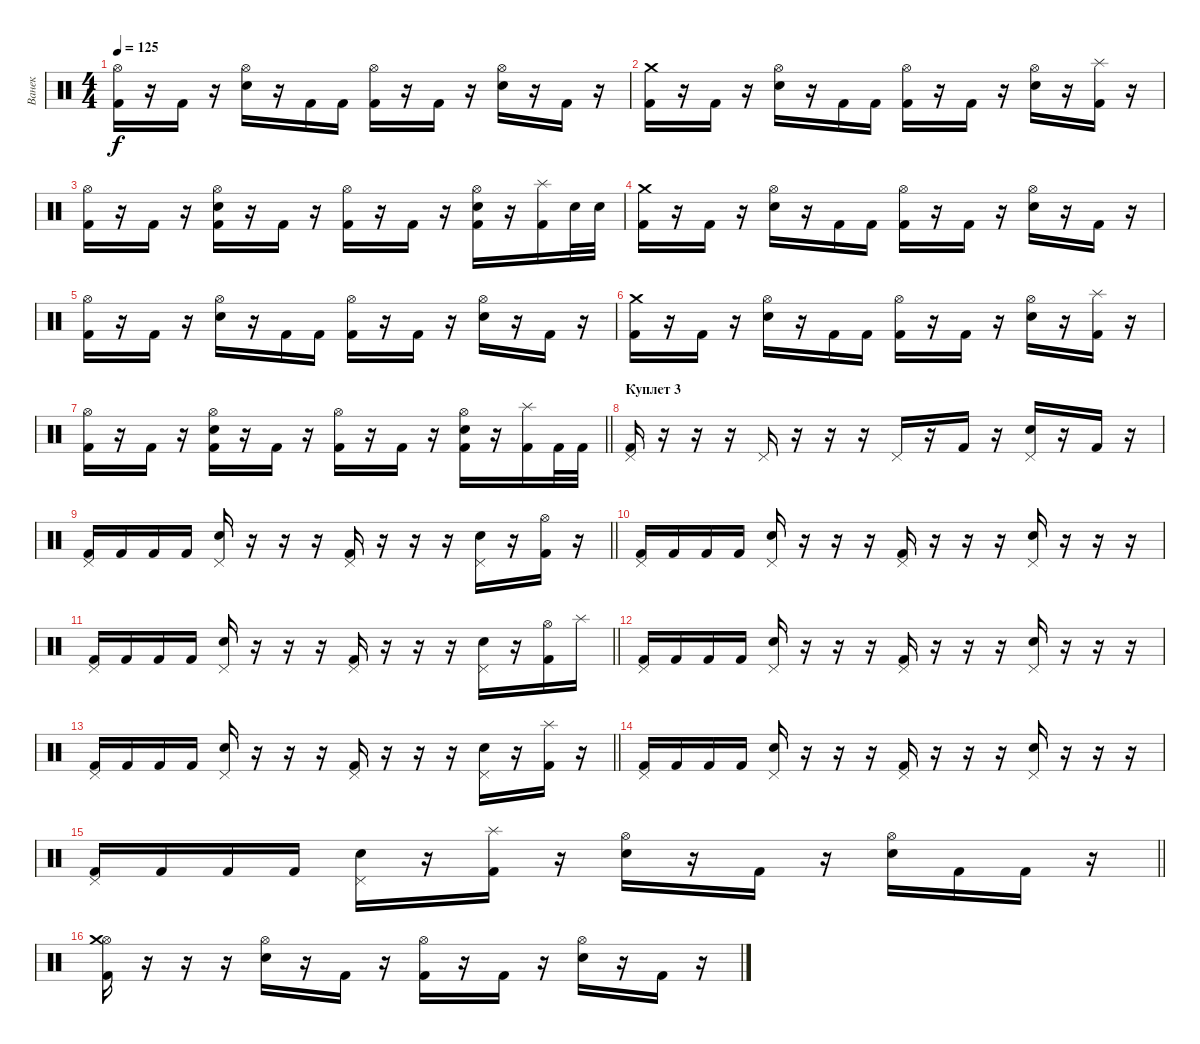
\track ("Ванек" "Ванек") {instrument percussion}
\staff {score}
\articulation defaults
\ts (4 4)
\tempo 125
\clef neutral
\ks c
("Hi-Hat (open)" "Kick (hit) 2").16{dy f} r.16 "Kick (hit) 2".16 r.16 ("Hi-Hat (open)" "Snare (hit) 2").16 r.16 "Kick (hit) 2".16 "Kick (hit) 2".16 ("Hi-Hat (open)" "Kick (hit) 2").16 r.16 "Kick (hit) 2".16 r.16 ("Hi-Hat (open)" "Snare (hit) 2").16 r.16 "Kick (hit) 2".16 r.16 |
("Crash medium (hit)" "Kick (hit) 2").16 r.16 "Kick (hit) 2".16 r.16 ("Hi-Hat (open)" "Snare (hit) 2").16 r.16 "Kick (hit) 2".16 "Kick (hit) 2".16 ("Hi-Hat (open)" "Kick (hit) 2").16 r.16 "Kick (hit) 2".16 r.16 ("Hi-Hat (open)" "Snare (hit) 2").16 r.16 ("Splash (hit)" "Kick (hit) 2").16 r.16 |
("Hi-Hat (open)" "Kick (hit) 2").16 r.16 "Kick (hit) 2".16 r.16 ("Hi-Hat (open)" "Snare (hit) 2" "Kick (hit) 2").16 r.16 "Kick (hit) 2".16 r.16 ("Hi-Hat (open)" "Kick (hit) 2").16 r.16 "Kick (hit) 2".16 r.16 ("Hi-Hat (open)" "Snare (hit) 2" "Kick (hit) 2").16 r.16 ("Splash (hit)" "Kick (hit) 2").16 "Snare (hit) 2".32 "Snare (hit) 2".32 |
("Crash medium (hit)" "Kick (hit) 2").16 r.16 "Kick (hit) 2".16 r.16 ("Hi-Hat (open)" "Snare (hit) 2").16 r.16 "Kick (hit) 2".16 "Kick (hit) 2".16 ("Hi-Hat (open)" "Kick (hit) 2").16 r.16 "Kick (hit) 2".16 r.16 ("Hi-Hat (open)" "Snare (hit) 2").16 r.16 "Kick (hit) 2".16 r.16 |
("Hi-Hat (open)" "Kick (hit) 2").16 r.16 "Kick (hit) 2".16 r.16 ("Hi-Hat (open)" "Snare (hit) 2").16 r.16 "Kick (hit) 2".16 "Kick (hit) 2".16 ("Hi-Hat (open)" "Kick (hit) 2").16 r.16 "Kick (hit) 2".16 r.16 ("Hi-Hat (open)" "Snare (hit) 2").16 r.16 "Kick (hit) 2".16 r.16 |
("Crash medium (hit)" "Kick (hit) 2").16 r.16 "Kick (hit) 2".16 r.16 ("Hi-Hat (open)" "Snare (hit) 2").16 r.16 "Kick (hit) 2".16 "Kick (hit) 2".16 ("Hi-Hat (open)" "Kick (hit) 2").16 r.16 "Kick (hit) 2".16 r.16 ("Hi-Hat (open)" "Snare (hit) 2").16 r.16 ("Splash (hit)" "Kick (hit) 2").16 r.16 |
\barLineRight lightlight
("Hi-Hat (open)" "Kick (hit) 2").16 r.16 "Kick (hit) 2".16 r.16 ("Hi-Hat (open)" "Snare (hit) 2" "Kick (hit) 2").16 r.16 "Kick (hit) 2".16 r.16 ("Hi-Hat (open)" "Kick (hit) 2").16 r.16 "Kick (hit) 2".16 r.16 ("Hi-Hat (open)" "Snare (hit) 2" "Kick (hit) 2").16 r.16 ("Splash (hit)" "Kick (hit) 2").16 "Kick (hit) 2".32 "Kick (hit) 2".32 |
\section ("" "Куплет 3")
("Pedal Hi-Hat (hit)" "Kick (hit) 2").16 r.16 r.16 r.16 "Pedal Hi-Hat (hit)".16 r.16 r.16 r.16 "Pedal Hi-Hat (hit)".16 r.16 "Kick (hit) 2".16 r.16 ("Pedal Hi-Hat (hit)" "Snare (hit) 2").16 r.16 "Kick (hit) 2".16 r.16 |
\barLineRight lightlight
("Pedal Hi-Hat (hit)" "Kick (hit) 2").16 "Kick (hit) 2".16 "Kick (hit) 2".16 "Kick (hit) 2".16 ("Pedal Hi-Hat (hit)" "Snare (hit) 2").16 r.16 r.16 r.16 ("Pedal Hi-Hat (hit)" "Kick (hit) 2").16 r.16 r.16 r.16 ("Pedal Hi-Hat (hit)" "Snare (hit) 2").16 r.16 ("Hi-Hat (open)" "Kick (hit) 2").16 r.16 |
("Pedal Hi-Hat (hit)" "Kick (hit) 2").16 "Kick (hit) 2".16 "Kick (hit) 2".16 "Kick (hit) 2".16 ("Pedal Hi-Hat (hit)" "Snare (hit) 2").16 r.16 r.16 r.16 ("Pedal Hi-Hat (hit)" "Kick (hit) 2").16 r.16 r.16 r.16 ("Pedal Hi-Hat (hit)" "Snare (hit) 2").16 r.16 r.16 r.16 |
\barLineRight lightlight
("Pedal Hi-Hat (hit)" "Kick (hit) 2").16 "Kick (hit) 2".16 "Kick (hit) 2".16 "Kick (hit) 2".16 ("Pedal Hi-Hat (hit)" "Snare (hit) 2").16 r.16 r.16 r.16 ("Pedal Hi-Hat (hit)" "Kick (hit) 2").16 r.16 r.16 r.16 ("Pedal Hi-Hat (hit)" "Snare (hit) 2").16 r.16 ("Hi-Hat (open)" "Kick (hit) 2").16 "Splash (hit)".16 |
("Pedal Hi-Hat (hit)" "Kick (hit) 2").16 "Kick (hit) 2".16 "Kick (hit) 2".16 "Kick (hit) 2".16 ("Pedal Hi-Hat (hit)" "Snare (hit) 2").16 r.16 r.16 r.16 ("Pedal Hi-Hat (hit)" "Kick (hit) 2").16 r.16 r.16 r.16 ("Pedal Hi-Hat (hit)" "Snare (hit) 2").16 r.16 r.16 r.16 |
\barLineRight lightlight
("Pedal Hi-Hat (hit)" "Kick (hit) 2").16 "Kick (hit) 2".16 "Kick (hit) 2".16 "Kick (hit) 2".16 ("Pedal Hi-Hat (hit)" "Snare (hit) 2").16 r.16 r.16 r.16 ("Pedal Hi-Hat (hit)" "Kick (hit) 2").16 r.16 r.16 r.16 ("Pedal Hi-Hat (hit)" "Snare (hit) 2").16 r.16 ("Splash (hit)" "Kick (hit) 2").16 r.16 |
("Pedal Hi-Hat (hit)" "Kick (hit) 2").16 "Kick (hit) 2".16 "Kick (hit) 2".16 "Kick (hit) 2".16 ("Pedal Hi-Hat (hit)" "Snare (hit) 2").16 r.16 r.16 r.16 ("Pedal Hi-Hat (hit)" "Kick (hit) 2").16 r.16 r.16 r.16 ("Pedal Hi-Hat (hit)" "Snare (hit) 2").16 r.16 r.16 r.16 |
\barLineRight lightlight
("Pedal Hi-Hat (hit)" "Kick (hit) 2").16 "Kick (hit) 2".16 "Kick (hit) 2".16 "Kick (hit) 2".16 ("Pedal Hi-Hat (hit)" "Snare (hit) 2").16 r.16 ("Splash (hit)" "Kick (hit) 2").16 r.16 ("Hi-Hat (open)" "Snare (hit) 2").16 r.16 "Kick (hit) 2".16 r.16 ("Hi-Hat (open)" "Snare (hit) 2").16 "Kick (hit) 2".16 "Kick (hit) 2".16 r.16 |
("Hi-Hat (open)" "Crash medium (hit)" "Kick (hit) 2").16 r.16 r.16 r.16 ("Hi-Hat (open)" "Snare (hit) 2").16 r.16 "Kick (hit) 2".16 r.16 ("Hi-Hat (open)" "Kick (hit) 2").16 r.16 "Kick (hit) 2".16 r.16 ("Hi-Hat (open)" "Snare (hit) 2").16 r.16 "Kick (hit) 2".16 r.16
